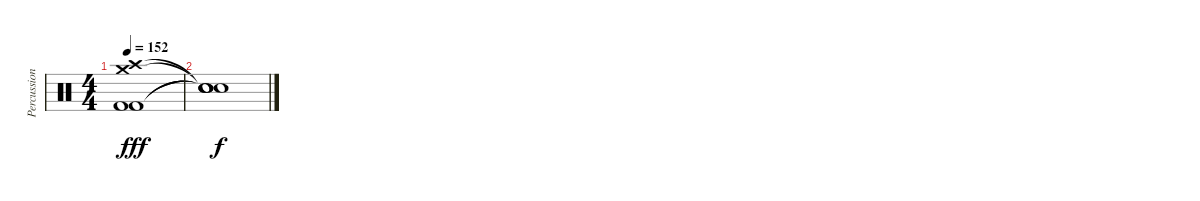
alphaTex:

\track ("Percussions" "Percussion") {instrument percussion}
\staff {score}
\articulation defaults
\ts (4 4)
\tempo 152
\clef neutral
\ks c
("Crash medium (hit)" "Crash high (hit)" "Kick (hit) 2" "Kick (hit) 2").1{dy fff} |
("Snare (hit)"{t} "Snare (hit)"{t} "Snare (hit)"{t} "Snare (hit)"{t}).1{dy f}
